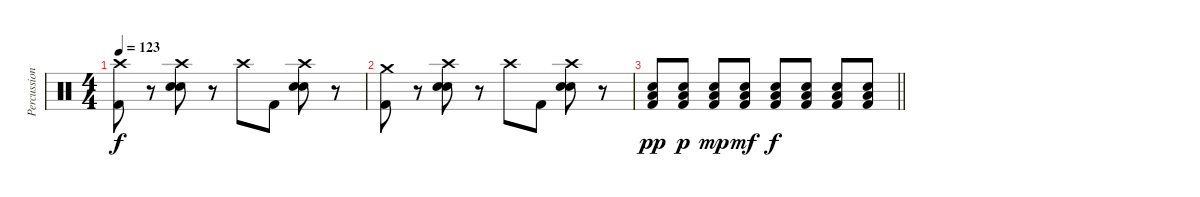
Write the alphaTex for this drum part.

\track ("Percussion" "Percussion") {instrument percussion}
\staff {score}
\articulation defaults
\ts (4 4)
\tempo 123
\clef neutral
\ks c
("Crash high (hit)" "Kick (hit) 2").8{dy f} r.8 ("Crash high (hit)" "Hand Clap (hit)" "Snare (hit) 2").8 r.8 "Crash high (hit)".8 "Kick (hit) 2".8 ("Crash high (hit)" "Hand Clap (hit)" "Snare (hit) 2").8 r.8 |
("Crash medium (hit)" "Kick (hit) 2").8 r.8 ("Crash high (hit)" "Hand Clap (hit)" "Snare (hit) 2").8 r.8 "Crash high (hit)".8 "Kick (hit) 2".8 ("Crash high (hit)" "Hand Clap (hit)" "Snare (hit) 2").8 r.8 |
\barLineRight lightlight
("Snare (hit) 2" "Low Floor Tom (hit)" "Kick (hit) 2").8{dy pp} ("Snare (hit) 2" "Low Floor Tom (hit)" "Kick (hit) 2").8{dy p} ("Snare (hit) 2" "Low Floor Tom (hit)" "Kick (hit) 2").8{dy mp} ("Snare (hit) 2" "Low Floor Tom (hit)" "Kick (hit) 2").8{dy mf} ("Snare (hit) 2" "Low Floor Tom (hit)" "Kick (hit) 2").8{dy f} ("Snare (hit) 2" "Low Floor Tom (hit)" "Kick (hit) 2").8 ("Snare (hit) 2" "Low Floor Tom (hit)" "Kick (hit) 2").8 ("Snare (hit) 2" "Low Floor Tom (hit)" "Kick (hit) 2").8
